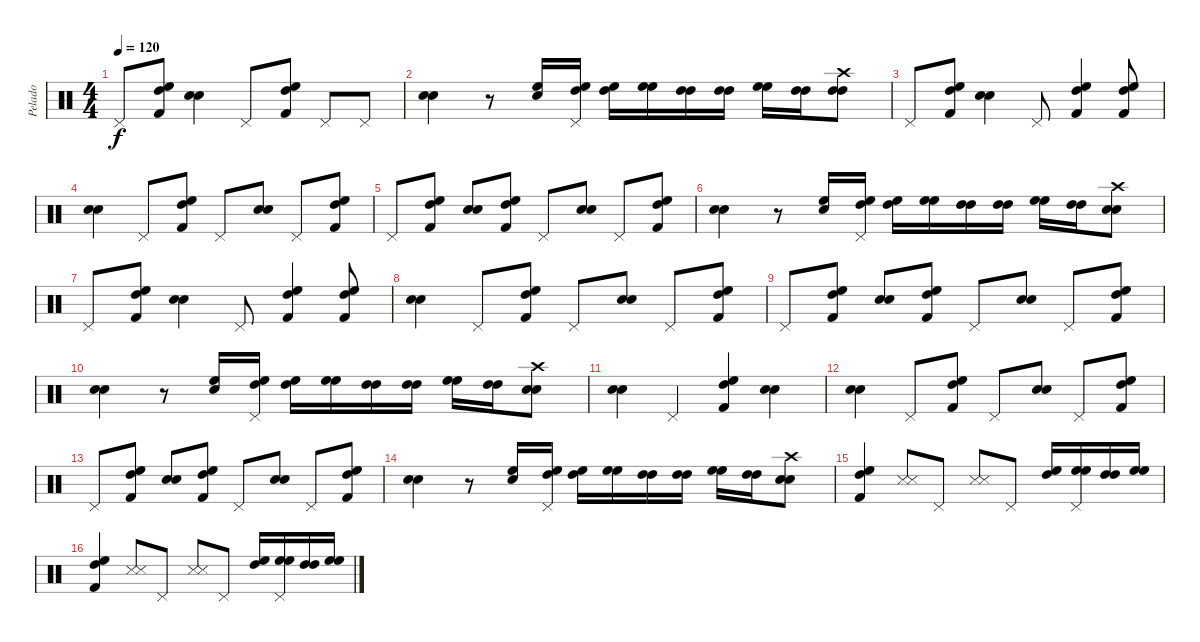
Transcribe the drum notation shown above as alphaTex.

\track ("Pelado" "Pelado") {instrument percussion}
\staff {score}
\articulation defaults
\ts (4 4)
\tempo 120
\clef neutral
\ks c "Pedal Hi-Hat (hit)".8{dy f}
("Kick (hit) 2" "High Floor Tom (hit)" "High Tom (hit)").8 ("Electric Snare (hit)" "Electric Snare (hit)").4 "Pedal Hi-Hat (hit)".8 ("Kick (hit) 2" "High Floor Tom (hit)" "High Tom (hit)").8 "Pedal Hi-Hat (hit)".8 "Pedal Hi-Hat (hit)".8 |
("Electric Snare (hit)" "Electric Snare (hit)").4 r.8 ("High Floor Tom (hit)" "Snare (hit) 2").16 ("Pedal Hi-Hat (hit)" "High Floor Tom (hit)" "High Tom (hit)").16 ("High Floor Tom (hit)" "High Tom (hit)").16 ("High Floor Tom (hit)" "High Floor Tom (hit)").16 ("High Tom (hit)" "High Tom (hit)").16 ("High Tom (hit)" "High Tom (hit)").16 ("High Floor Tom (hit)" "High Floor Tom (hit)").16 ("High Tom (hit)" "High Tom (hit)").16 ("Crash high (hit)" "High Tom (hit)" "High Tom (hit)").8 |
"Pedal Hi-Hat (hit)".8 ("Kick (hit) 2" "High Floor Tom (hit)" "High Tom (hit)").8 ("Electric Snare (hit)" "Electric Snare (hit)").4 "Pedal Hi-Hat (hit)".8 ("Kick (hit) 2" "High Floor Tom (hit)" "High Tom (hit)").4 ("Kick (hit) 2" "High Floor Tom (hit)" "High Tom (hit)").8 |
("Electric Snare (hit)" "Electric Snare (hit)").4 "Pedal Hi-Hat (hit)".8 ("Kick (hit) 2" "High Floor Tom (hit)" "High Tom (hit)").8 "Pedal Hi-Hat (hit)".8 ("Electric Snare (hit)" "Electric Snare (hit)").8 "Pedal Hi-Hat (hit)".8 ("Kick (hit) 2" "High Floor Tom (hit)" "High Tom (hit)").8 |
"Pedal Hi-Hat (hit)".8 ("Kick (hit) 2" "High Floor Tom (hit)" "High Tom (hit)").8 ("Electric Snare (hit)" "Electric Snare (hit)").8 ("Kick (hit) 2" "High Floor Tom (hit)" "High Tom (hit)").8 "Pedal Hi-Hat (hit)".8 ("Electric Snare (hit)" "Electric Snare (hit)").8 "Pedal Hi-Hat (hit)".8 ("Kick (hit) 2" "High Floor Tom (hit)" "High Tom (hit)").8 |
("Electric Snare (hit)" "Electric Snare (hit)").4 r.8 ("High Floor Tom (hit)" "Snare (hit) 2").16 ("Pedal Hi-Hat (hit)" "High Floor Tom (hit)" "High Tom (hit)").16 ("High Floor Tom (hit)" "High Tom (hit)").16 ("High Floor Tom (hit)" "High Floor Tom (hit)").16 ("High Tom (hit)" "High Tom (hit)").16 ("High Tom (hit)" "High Tom (hit)").16 ("High Floor Tom (hit)" "High Floor Tom (hit)").16 ("High Tom (hit)" "High Tom (hit)").16 ("Crash high (hit)" "Electric Snare (hit)" "Electric Snare (hit)").8 |
"Pedal Hi-Hat (hit)".8 ("Kick (hit) 2" "High Floor Tom (hit)" "High Tom (hit)").8 ("Electric Snare (hit)" "Electric Snare (hit)").4 "Pedal Hi-Hat (hit)".8 ("Kick (hit) 2" "High Floor Tom (hit)" "High Tom (hit)").4 ("Kick (hit) 2" "High Floor Tom (hit)" "High Tom (hit)").8 |
("Electric Snare (hit)" "Electric Snare (hit)").4 "Pedal Hi-Hat (hit)".8 ("Kick (hit) 2" "High Floor Tom (hit)" "High Tom (hit)").8 "Pedal Hi-Hat (hit)".8 ("Electric Snare (hit)" "Electric Snare (hit)").8 "Pedal Hi-Hat (hit)".8 ("Kick (hit) 2" "High Floor Tom (hit)" "High Tom (hit)").8 |
"Pedal Hi-Hat (hit)".8 ("Kick (hit) 2" "High Floor Tom (hit)" "High Tom (hit)").8 ("Electric Snare (hit)" "Electric Snare (hit)").8 ("Kick (hit) 2" "High Floor Tom (hit)" "High Tom (hit)").8 "Pedal Hi-Hat (hit)".8 ("Electric Snare (hit)" "Electric Snare (hit)").8 "Pedal Hi-Hat (hit)".8 ("Kick (hit) 2" "High Floor Tom (hit)" "High Tom (hit)").8 |
("Electric Snare (hit)" "Electric Snare (hit)").4 r.8 ("High Floor Tom (hit)" "Snare (hit) 2").16 ("Pedal Hi-Hat (hit)" "High Floor Tom (hit)" "High Tom (hit)").16 ("High Floor Tom (hit)" "High Tom (hit)").16 ("High Floor Tom (hit)" "High Floor Tom (hit)").16 ("High Tom (hit)" "High Tom (hit)").16 ("High Tom (hit)" "High Tom (hit)").16 ("High Floor Tom (hit)" "High Floor Tom (hit)").16 ("High Tom (hit)" "High Tom (hit)").16 ("Crash high (hit)" "Electric Snare (hit)" "Electric Snare (hit)").8 |
("Electric Snare (hit)" "Electric Snare (hit)").4 "Pedal Hi-Hat (hit)".4 ("Kick (hit) 2" "High Floor Tom (hit)" "High Tom (hit)").4 ("Electric Snare (hit)" "Electric Snare (hit)").4 |
("Electric Snare (hit)" "Electric Snare (hit)").4 "Pedal Hi-Hat (hit)".8 ("Kick (hit) 2" "High Floor Tom (hit)" "High Tom (hit)").8 "Pedal Hi-Hat (hit)".8 ("Electric Snare (hit)" "Electric Snare (hit)").8 "Pedal Hi-Hat (hit)".8 ("Kick (hit) 2" "High Floor Tom (hit)" "High Tom (hit)").8 |
"Pedal Hi-Hat (hit)".8 ("Kick (hit) 2" "High Floor Tom (hit)" "High Tom (hit)").8 ("Electric Snare (hit)" "Electric Snare (hit)").8 ("Kick (hit) 2" "High Floor Tom (hit)" "High Tom (hit)").8 "Pedal Hi-Hat (hit)".8 ("Electric Snare (hit)" "Electric Snare (hit)").8 "Pedal Hi-Hat (hit)".8 ("Kick (hit) 2" "High Floor Tom (hit)" "High Tom (hit)").8 |
("Electric Snare (hit)" "Electric Snare (hit)").4 r.8 ("High Floor Tom (hit)" "Snare (hit) 2").16 ("Pedal Hi-Hat (hit)" "High Floor Tom (hit)" "High Tom (hit)").16 ("High Floor Tom (hit)" "High Tom (hit)").16 ("High Floor Tom (hit)" "High Floor Tom (hit)").16 ("High Tom (hit)" "High Tom (hit)").16 ("High Tom (hit)" "High Tom (hit)").16 ("High Floor Tom (hit)" "High Floor Tom (hit)").16 ("High Tom (hit)" "High Tom (hit)").16 ("Crash high (hit)" "Electric Snare (hit)" "Electric Snare (hit)").8 |
("Kick (hit) 2" "High Floor Tom (hit)" "High Tom (hit)").4 ("Snare (side stick) 3" "Snare (side stick) 3").8 "Pedal Hi-Hat (hit)".8 ("Snare (side stick) 3" "Snare (side stick) 3").8 "Pedal Hi-Hat (hit)".8 ("High Floor Tom (hit)" "High Tom (hit)").16 ("Pedal Hi-Hat (hit)" "High Floor Tom (hit)" "High Floor Tom (hit)").16 ("High Tom (hit)" "High Tom (hit)").16 ("High Floor Tom (hit)" "High Floor Tom (hit)").16 |
("Kick (hit) 2" "High Floor Tom (hit)" "High Tom (hit)").4 ("Snare (side stick) 3" "Snare (side stick) 3").8 "Pedal Hi-Hat (hit)".8 ("Snare (side stick) 3" "Snare (side stick) 3").8 "Pedal Hi-Hat (hit)".8 ("High Floor Tom (hit)" "High Tom (hit)").16 ("Pedal Hi-Hat (hit)" "High Floor Tom (hit)" "High Floor Tom (hit)").16 ("High Tom (hit)" "High Tom (hit)").16 ("High Floor Tom (hit)" "High Floor Tom (hit)").16
